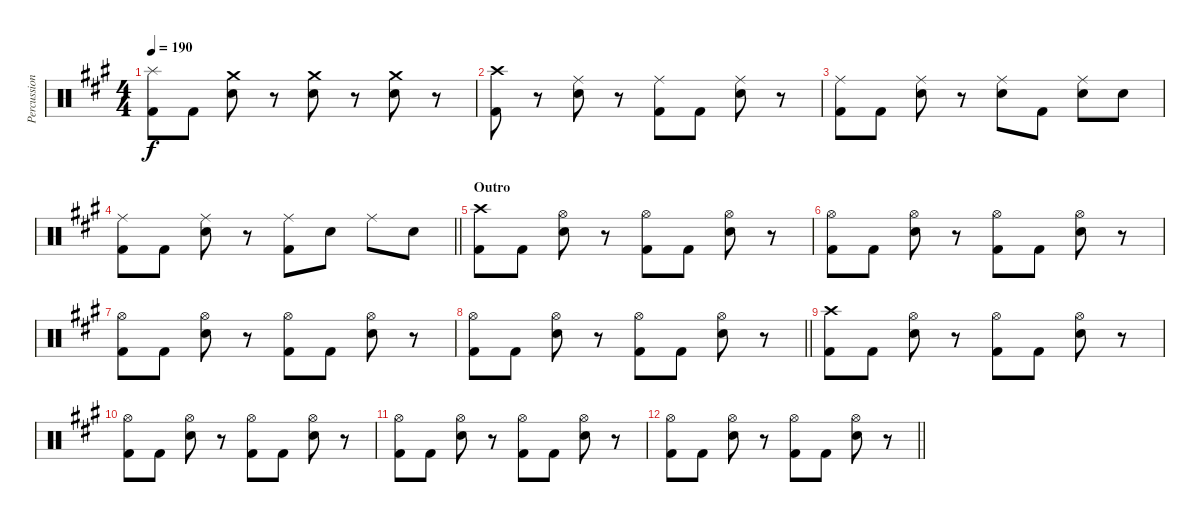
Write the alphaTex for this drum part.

\track ("Percussion" "Percussion") {instrument percussion}
\staff {score}
\articulation defaults
\ts (4 4)
\tempo 190
\clef neutral
\ks a
("Splash (hit)" "Kick (hit) 2").8{dy f} "Kick (hit) 2".8 ("Crash medium (hit)" "Snare (hit) 2").8 r.8 ("Crash medium (hit)" "Snare (hit) 2").8 r.8 ("Crash medium (hit)" "Snare (hit) 2").8 r.8 |
("Crash high (hit)" "Kick (hit) 2").8 r.8 ("Ride (middle)" "Snare (hit) 2").8 r.8 ("Ride (middle)" "Kick (hit) 2").8 "Kick (hit) 2".8 ("Ride (middle)" "Snare (hit) 2").8 r.8 |
("Ride (middle)" "Kick (hit) 2").8 "Kick (hit) 2".8 ("Ride (middle)" "Snare (hit) 2").8 r.8 ("Ride (middle)" "Snare (hit) 2").8 "Kick (hit) 2".8 ("Ride (middle)" "Snare (hit) 2").8 "Snare (hit) 2".8 |
\barLineRight lightlight
("Ride (middle)" "Kick (hit) 2").8 "Kick (hit) 2".8 ("Ride (middle)" "Snare (hit) 2").8 r.8 ("Ride (middle)" "Kick (hit) 2").8 "Snare (hit) 2".8 "Ride (middle)".8 "Snare (hit) 2".8 |
\section ("" "Outro")
("Crash high (hit)" "Kick (hit) 2").8 "Kick (hit) 2".8 ("Hi-Hat (open)" "Snare (hit) 2").8 r.8 ("Hi-Hat (open)" "Kick (hit) 2").8 "Kick (hit) 2".8 ("Hi-Hat (open)" "Snare (hit) 2").8 r.8 |
("Hi-Hat (open)" "Kick (hit) 2").8 "Kick (hit) 2".8 ("Hi-Hat (open)" "Snare (hit) 2").8 r.8 ("Hi-Hat (open)" "Kick (hit) 2").8 "Kick (hit) 2".8 ("Hi-Hat (open)" "Snare (hit) 2").8 r.8 |
("Hi-Hat (open)" "Kick (hit) 2").8 "Kick (hit) 2".8 ("Hi-Hat (open)" "Snare (hit) 2").8 r.8 ("Hi-Hat (open)" "Kick (hit) 2").8 "Kick (hit) 2".8 ("Hi-Hat (open)" "Snare (hit) 2").8 r.8 |
\barLineRight lightlight
("Hi-Hat (open)" "Kick (hit) 2").8 "Kick (hit) 2".8 ("Hi-Hat (open)" "Snare (hit) 2").8 r.8 ("Hi-Hat (open)" "Kick (hit) 2").8 "Kick (hit) 2".8 ("Hi-Hat (open)" "Snare (hit) 2").8 r.8 |
("Crash high (hit)" "Kick (hit) 2").8 "Kick (hit) 2".8 ("Hi-Hat (open)" "Snare (hit) 2").8 r.8 ("Hi-Hat (open)" "Kick (hit) 2").8 "Kick (hit) 2".8 ("Hi-Hat (open)" "Snare (hit) 2").8 r.8 |
("Hi-Hat (open)" "Kick (hit) 2").8 "Kick (hit) 2".8 ("Hi-Hat (open)" "Snare (hit) 2").8 r.8 ("Hi-Hat (open)" "Kick (hit) 2").8 "Kick (hit) 2".8 ("Hi-Hat (open)" "Snare (hit) 2").8 r.8 |
("Hi-Hat (open)" "Kick (hit) 2").8 "Kick (hit) 2".8 ("Hi-Hat (open)" "Snare (hit) 2").8 r.8 ("Hi-Hat (open)" "Kick (hit) 2").8 "Kick (hit) 2".8 ("Hi-Hat (open)" "Snare (hit) 2").8 r.8 |
\barLineRight lightlight
("Hi-Hat (open)" "Kick (hit) 2").8 "Kick (hit) 2".8 ("Hi-Hat (open)" "Snare (hit) 2").8 r.8 ("Hi-Hat (open)" "Kick (hit) 2").8 "Kick (hit) 2".8 ("Hi-Hat (open)" "Snare (hit) 2").8 r.8
